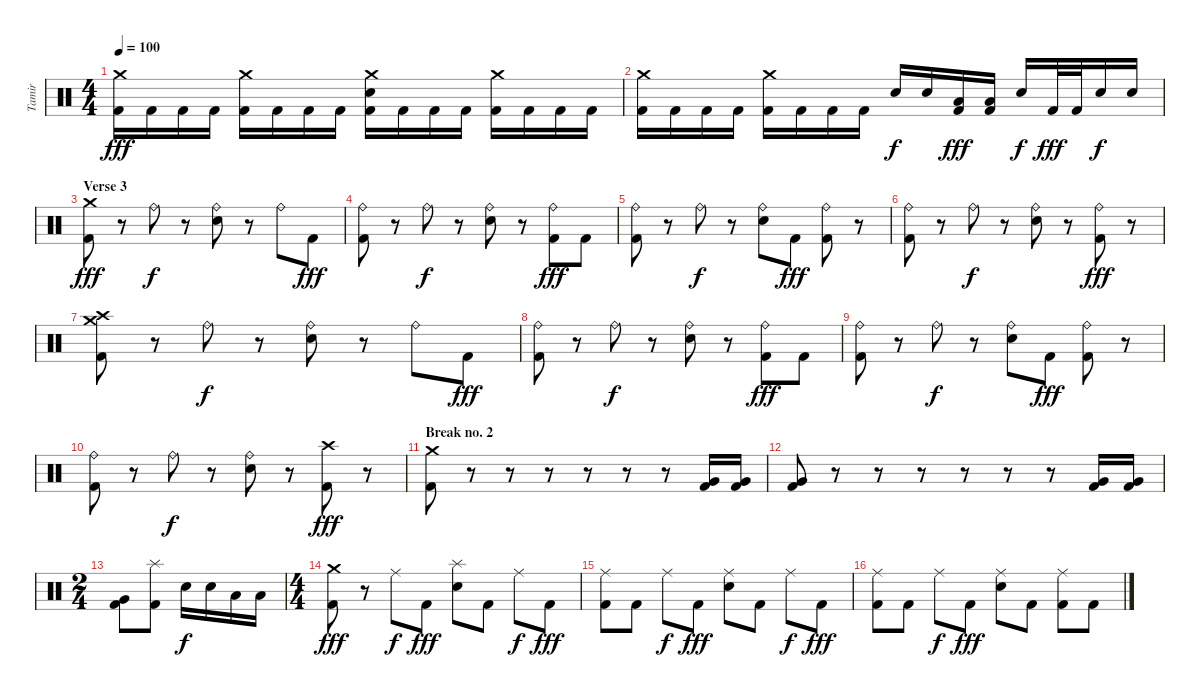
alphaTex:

\track ("Tamir" "Tamir") {instrument percussion}
\staff {score}
\articulation defaults
\ts (4 4)
\tempo 100
\clef neutral
\ks c
("Crash medium (hit)" "Kick (hit) 2").16{dy fff} "Kick (hit) 2".16 "Kick (hit) 2".16 "Kick (hit) 2".16 ("Crash medium (hit)" "Kick (hit) 2").16 "Kick (hit) 2".16 "Kick (hit) 2".16 "Kick (hit) 2".16 ("Crash medium (hit)" "Electric Snare (hit)" "Kick (hit) 2").16 "Kick (hit) 2".16 "Kick (hit) 2".16 "Kick (hit) 2".16 ("Crash medium (hit)" "Kick (hit) 2").16 "Kick (hit) 2".16 "Kick (hit) 2".16 "Kick (hit) 2".16 |
("Crash medium (hit)" "Kick (hit) 2").16 "Kick (hit) 2".16 "Kick (hit) 2".16 "Kick (hit) 2".16 ("Crash medium (hit)" "Kick (hit) 2").16 "Kick (hit) 2".16 "Kick (hit) 2".16 "Kick (hit) 2".16 "Electric Snare (hit)".16{dy f} "Electric Snare (hit)".16 ("Low Tom (hit)" "Kick (hit) 2").16{dy fff} ("Low Tom (hit)" "Kick (hit) 2").16 "Electric Snare (hit)".16{dy f} "Kick (hit) 2".32{dy fff} "Kick (hit) 2".32 "Electric Snare (hit)".16{dy f} "Electric Snare (hit)".16 |
\section ("" "Verse 3")
("Crash medium (hit)" "Kick (hit) 2").8{dy fff} r.8 "Ride (bell)".8{dy f} r.8 ("Ride (bell)" "Electric Snare (hit)").8 r.8 "Ride (bell)".8 "Kick (hit) 2".8{dy fff} |
("Ride (bell)" "Kick (hit) 2").8 r.8 "Ride (bell)".8{dy f} r.8 ("Ride (bell)" "Electric Snare (hit)").8 r.8 ("Ride (bell)" "Kick (hit) 2").8{dy fff} "Kick (hit) 2".8 |
("Ride (bell)" "Kick (hit) 2").8 r.8 "Ride (bell)".8{dy f} r.8 ("Ride (bell)" "Electric Snare (hit)").8 "Kick (hit) 2".8{dy fff} ("Ride (bell)" "Kick (hit) 2").8 r.8 |
("Ride (bell)" "Kick (hit) 2").8 r.8 "Ride (bell)".8{dy f} r.8 ("Ride (bell)" "Electric Snare (hit)").8 r.8 ("Ride (bell)" "Kick (hit) 2").8{dy fff} r.8 |
("Crash medium (hit)" "Crash high (hit)" "Kick (hit) 2").8 r.8 "Ride (bell)".8{dy f} r.8 ("Ride (bell)" "Electric Snare (hit)").8 r.8 "Ride (bell)".8 "Kick (hit) 2".8{dy fff} |
("Ride (bell)" "Kick (hit) 2").8 r.8 "Ride (bell)".8{dy f} r.8 ("Ride (bell)" "Electric Snare (hit)").8 r.8 ("Ride (bell)" "Kick (hit) 2").8{dy fff} "Kick (hit) 2".8 |
("Ride (bell)" "Kick (hit) 2").8 r.8 "Ride (bell)".8{dy f} r.8 ("Ride (bell)" "Electric Snare (hit)").8 "Kick (hit) 2".8{dy fff} ("Ride (bell)" "Kick (hit) 2").8 r.8 |
("Ride (bell)" "Kick (hit) 2").8 r.8 "Ride (bell)".8{dy f} r.8 ("Ride (bell)" "Electric Snare (hit)").8 r.8 ("Crash high (hit)" "Kick (hit) 2").8{dy fff} r.8 |
\section ("" "Break no. 2")
("Crash medium (hit)" "Kick (hit) 2").8 r.8 r.8 r.8 r.8 r.8 r.8 ("Very Low Tom (hit)" "Kick (hit) 2").16 ("Very Low Tom (hit)" "Kick (hit) 2").16 |
("Very Low Tom (hit)" "Kick (hit) 2").8 r.8 r.8 r.8 r.8 r.8 r.8 ("Very Low Tom (hit)" "Kick (hit) 2").16 ("Very Low Tom (hit)" "Kick (hit) 2").16 |
\ts (2 4)
("Very Low Tom (hit)" "Kick (hit) 2").8 ("Splash (hit)" "Kick (hit) 2").8 "Electric Snare (hit)".16{dy f} "Electric Snare (hit)".16 "Low Tom (hit)".16 "Low Tom (hit)".16 |
\ts (4 4)
("Crash medium (hit)" "Kick (hit) 2").8{dy fff} r.8 "Ride (middle)".8{dy f} "Kick (hit) 2".8{dy fff} ("Splash (hit)" "Electric Snare (hit)").8 "Kick (hit) 2".8 "Ride (middle)".8{dy f} "Kick (hit) 2".8{dy fff} |
("Ride (middle)" "Kick (hit) 2").8 "Kick (hit) 2".8 "Ride (middle)".8{dy f} "Kick (hit) 2".8{dy fff} ("Ride (middle)" "Electric Snare (hit)").8 "Kick (hit) 2".8 "Ride (middle)".8{dy f} "Kick (hit) 2".8{dy fff} |
("Ride (middle)" "Kick (hit) 2").8 "Kick (hit) 2".8 "Ride (middle)".8{dy f} "Kick (hit) 2".8{dy fff} ("Ride (middle)" "Electric Snare (hit)").8 "Kick (hit) 2".8 ("Ride (middle)" "Kick (hit) 2").8 "Kick (hit) 2".8
